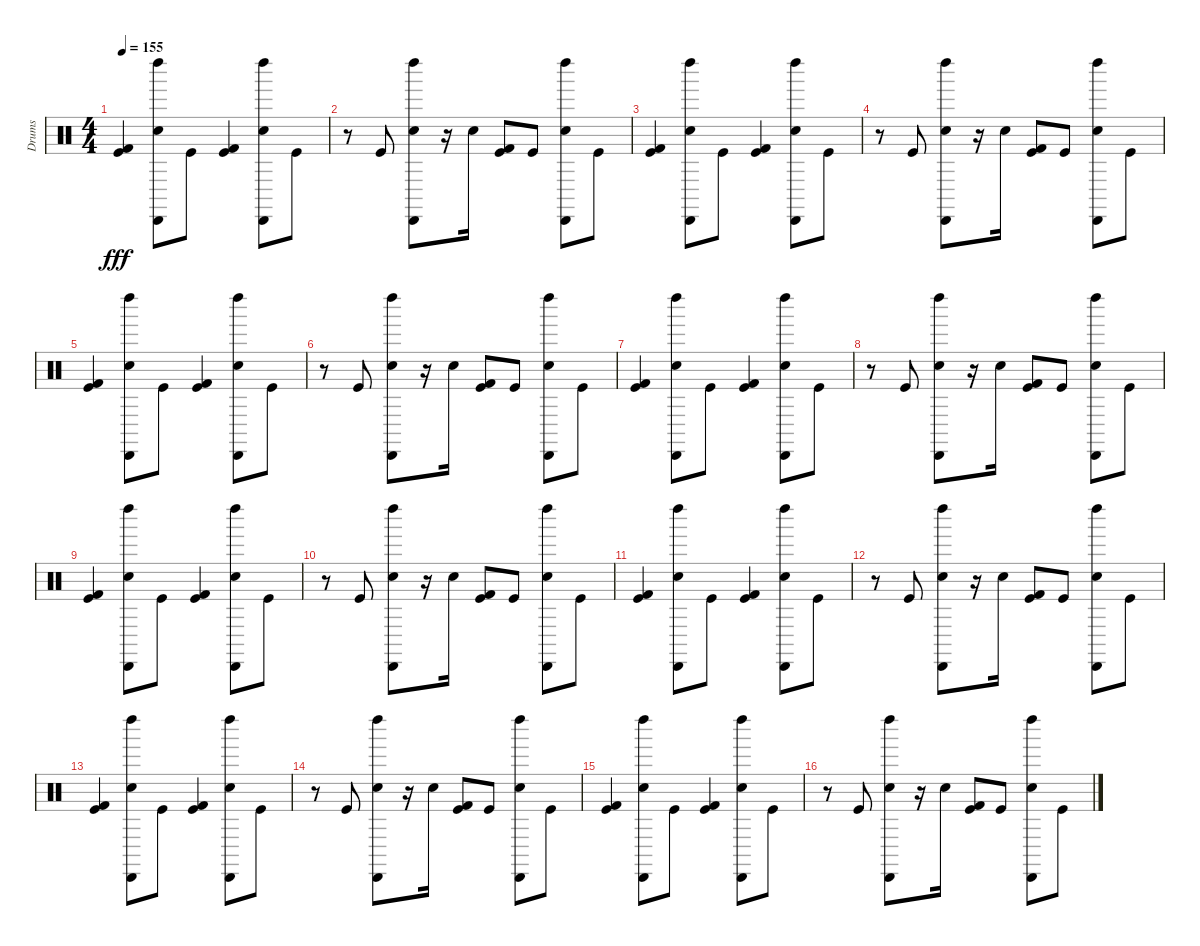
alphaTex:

\track ("Drums" "Drums") {instrument percussion}
\staff {score}
\articulation defaults
\ts (4 4)
\tempo 155
\clef neutral
\ks c
("Kick (hit) 2" "Kick (hit)").4{dy fff} ("Left Maraca (hit)" "Cabasa (hit)" "Snare (hit) 2").8 "Kick (hit)".8 ("Kick (hit) 2" "Kick (hit)").4 ("Left Maraca (hit)" "Cabasa (hit)" "Snare (hit) 2").8 "Kick (hit)".8 |
r.8 "Kick (hit)".8 ("Cabasa (hit)" "Left Maraca (hit)" "Snare (hit) 2").8 r.16 "Snare (hit) 2".16 ("Kick (hit) 2" "Kick (hit)").8 "Kick (hit)".8 ("Cabasa (hit)" "Left Maraca (hit)" "Snare (hit) 2").8 "Kick (hit)".8 |
("Kick (hit) 2" "Kick (hit)").4 ("Left Maraca (hit)" "Cabasa (hit)" "Snare (hit) 2").8 "Kick (hit)".8 ("Kick (hit) 2" "Kick (hit)").4 ("Left Maraca (hit)" "Cabasa (hit)" "Snare (hit) 2").8 "Kick (hit)".8 |
r.8 "Kick (hit)".8 ("Cabasa (hit)" "Left Maraca (hit)" "Snare (hit) 2").8 r.16 "Snare (hit) 2".16 ("Kick (hit) 2" "Kick (hit)").8 "Kick (hit)".8 ("Cabasa (hit)" "Left Maraca (hit)" "Snare (hit) 2").8 "Kick (hit)".8 |
("Kick (hit) 2" "Kick (hit)").4 ("Left Maraca (hit)" "Cabasa (hit)" "Snare (hit) 2").8 "Kick (hit)".8 ("Kick (hit) 2" "Kick (hit)").4 ("Left Maraca (hit)" "Cabasa (hit)" "Snare (hit) 2").8 "Kick (hit)".8 |
r.8 "Kick (hit)".8 ("Cabasa (hit)" "Left Maraca (hit)" "Snare (hit) 2").8 r.16 "Snare (hit) 2".16 ("Kick (hit) 2" "Kick (hit)").8 "Kick (hit)".8 ("Cabasa (hit)" "Left Maraca (hit)" "Snare (hit) 2").8 "Kick (hit)".8 |
("Kick (hit) 2" "Kick (hit)").4 ("Left Maraca (hit)" "Cabasa (hit)" "Snare (hit) 2").8 "Kick (hit)".8 ("Kick (hit) 2" "Kick (hit)").4 ("Left Maraca (hit)" "Cabasa (hit)" "Snare (hit) 2").8 "Kick (hit)".8 |
r.8 "Kick (hit)".8 ("Cabasa (hit)" "Left Maraca (hit)" "Snare (hit) 2").8 r.16 "Snare (hit) 2".16 ("Kick (hit) 2" "Kick (hit)").8 "Kick (hit)".8 ("Cabasa (hit)" "Left Maraca (hit)" "Snare (hit) 2").8 "Kick (hit)".8 |
("Kick (hit) 2" "Kick (hit)").4 ("Left Maraca (hit)" "Cabasa (hit)" "Snare (hit) 2").8 "Kick (hit)".8 ("Kick (hit) 2" "Kick (hit)").4 ("Left Maraca (hit)" "Cabasa (hit)" "Snare (hit) 2").8 "Kick (hit)".8 |
r.8 "Kick (hit)".8 ("Cabasa (hit)" "Left Maraca (hit)" "Snare (hit) 2").8 r.16 "Snare (hit) 2".16 ("Kick (hit) 2" "Kick (hit)").8 "Kick (hit)".8 ("Cabasa (hit)" "Left Maraca (hit)" "Snare (hit) 2").8 "Kick (hit)".8 |
("Kick (hit) 2" "Kick (hit)").4 ("Left Maraca (hit)" "Cabasa (hit)" "Snare (hit) 2").8 "Kick (hit)".8 ("Kick (hit) 2" "Kick (hit)").4 ("Left Maraca (hit)" "Cabasa (hit)" "Snare (hit) 2").8 "Kick (hit)".8 |
r.8 "Kick (hit)".8 ("Cabasa (hit)" "Left Maraca (hit)" "Snare (hit) 2").8 r.16 "Snare (hit) 2".16 ("Kick (hit) 2" "Kick (hit)").8 "Kick (hit)".8 ("Cabasa (hit)" "Left Maraca (hit)" "Snare (hit) 2").8 "Kick (hit)".8 |
("Kick (hit) 2" "Kick (hit)").4 ("Left Maraca (hit)" "Cabasa (hit)" "Snare (hit) 2").8 "Kick (hit)".8 ("Kick (hit) 2" "Kick (hit)").4 ("Left Maraca (hit)" "Cabasa (hit)" "Snare (hit) 2").8 "Kick (hit)".8 |
r.8 "Kick (hit)".8 ("Cabasa (hit)" "Left Maraca (hit)" "Snare (hit) 2").8 r.16 "Snare (hit) 2".16 ("Kick (hit) 2" "Kick (hit)").8 "Kick (hit)".8 ("Cabasa (hit)" "Left Maraca (hit)" "Snare (hit) 2").8 "Kick (hit)".8 |
("Kick (hit) 2" "Kick (hit)").4 ("Left Maraca (hit)" "Cabasa (hit)" "Snare (hit) 2").8 "Kick (hit)".8 ("Kick (hit) 2" "Kick (hit)").4 ("Left Maraca (hit)" "Cabasa (hit)" "Snare (hit) 2").8 "Kick (hit)".8 |
r.8 "Kick (hit)".8 ("Cabasa (hit)" "Left Maraca (hit)" "Snare (hit) 2").8 r.16 "Snare (hit) 2".16 ("Kick (hit) 2" "Kick (hit)").8 "Kick (hit)".8 ("Cabasa (hit)" "Left Maraca (hit)" "Snare (hit) 2").8 "Kick (hit)".8
